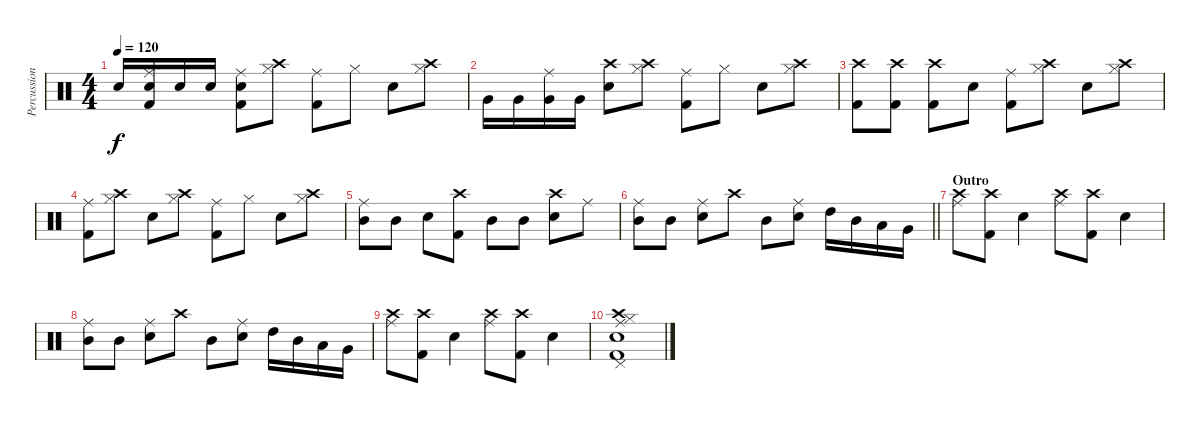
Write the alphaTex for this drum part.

\track ("Percussion" "Percussion") {instrument percussion}
\staff {score}
\articulation defaults
\ts (4 4)
\tempo 120
\clef neutral
\ks c "Electric Snare (hit)".16{dy f}
("Ride (middle)" "Electric Snare (hit)" "Kick (hit) 2").16 "Electric Snare (hit)".16 "Electric Snare (hit)".16 ("Ride (middle)" "Electric Snare (hit)" "Kick (hit) 2").8 ("Crash high (hit)" "Hi-Hat (closed)").8 ("Ride (middle)" "Kick (hit) 2").8 "Hi-Hat (closed)".8 "Electric Snare (hit)".8 ("Crash high (hit)" "Hi-Hat (closed)").8 |
"Very Low Tom (hit)".16 "Very Low Tom (hit)".16 ("Ride (middle)" "Very Low Tom (hit)").16 "Very Low Tom (hit)".16 ("Crash high (hit)" "Electric Snare (hit)").8 ("Crash high (hit)" "Hi-Hat (closed)").8 ("Ride (middle)" "Kick (hit) 2").8 "Hi-Hat (closed)".8 "Electric Snare (hit)".8 ("Crash high (hit)" "Hi-Hat (closed)").8 |
("Crash high (hit)" "Kick (hit) 2").8 ("Crash high (hit)" "Kick (hit) 2").8 ("Crash high (hit)" "Kick (hit) 2").8 "Electric Snare (hit)".8 ("Ride (middle)" "Kick (hit) 2").8 ("Crash high (hit)" "Hi-Hat (closed)").8 "Electric Snare (hit)".8 ("Crash high (hit)" "Hi-Hat (closed)").8 |
("Ride (middle)" "Kick (hit) 2").8 ("Crash high (hit)" "Hi-Hat (closed)").8 "Electric Snare (hit)".8 ("Crash high (hit)" "Hi-Hat (closed)").8 ("Ride (middle)" "Kick (hit) 2").8 "Hi-Hat (closed)".8 "Electric Snare (hit)".8 ("Crash high (hit)" "Hi-Hat (closed)").8 |
("Ride (middle)" "Mid Tom (hit)").8 "Mid Tom (hit)".8 "Electric Snare (hit)".8 ("Crash high (hit)" "Kick (hit) 2").8 "Mid Tom (hit)".8 "Mid Tom (hit)".8 ("Crash high (hit)" "Electric Snare (hit)").8 "Ride (middle)".8 |
\barLineRight lightlight
("Ride (middle)" "Mid Tom (hit)").8 "Mid Tom (hit)".8 ("Ride (middle)" "Electric Snare (hit)").8 "Crash high (hit)".8 "Mid Tom (hit)".8 ("Ride (middle)" "Electric Snare (hit)").8 "High Tom (hit)".16 "Mid Tom (hit)".16 "Low Tom (hit)".16 "Very Low Tom (hit)".16 |
\section ("" "Outro")
("Crash high (hit)" "Ride (middle)").8 ("Crash high (hit)" "Kick (hit) 2").8 "Electric Snare (hit)".4 ("Crash high (hit)" "Ride (middle)").8 ("Crash high (hit)" "Kick (hit) 2").8 "Electric Snare (hit)".4 |
("Ride (middle)" "Mid Tom (hit)").8 "Mid Tom (hit)".8 ("Ride (middle)" "Electric Snare (hit)").8 "Crash high (hit)".8 "Mid Tom (hit)".8 ("Ride (middle)" "Electric Snare (hit)").8 "High Tom (hit)".16 "Mid Tom (hit)".16 "Low Tom (hit)".16 "Very Low Tom (hit)".16 |
("Crash high (hit)" "Ride (middle)").8 ("Crash high (hit)" "Kick (hit) 2").8 "Electric Snare (hit)".4 ("Crash high (hit)" "Ride (middle)").8 ("Crash high (hit)" "Kick (hit) 2").8 "Electric Snare (hit)".4 |
("Hi-Hat (closed)" "Crash high (hit)" "Pedal Hi-Hat (hit)" "Ride (middle)" "Electric Snare (hit)" "Kick (hit) 2").1
